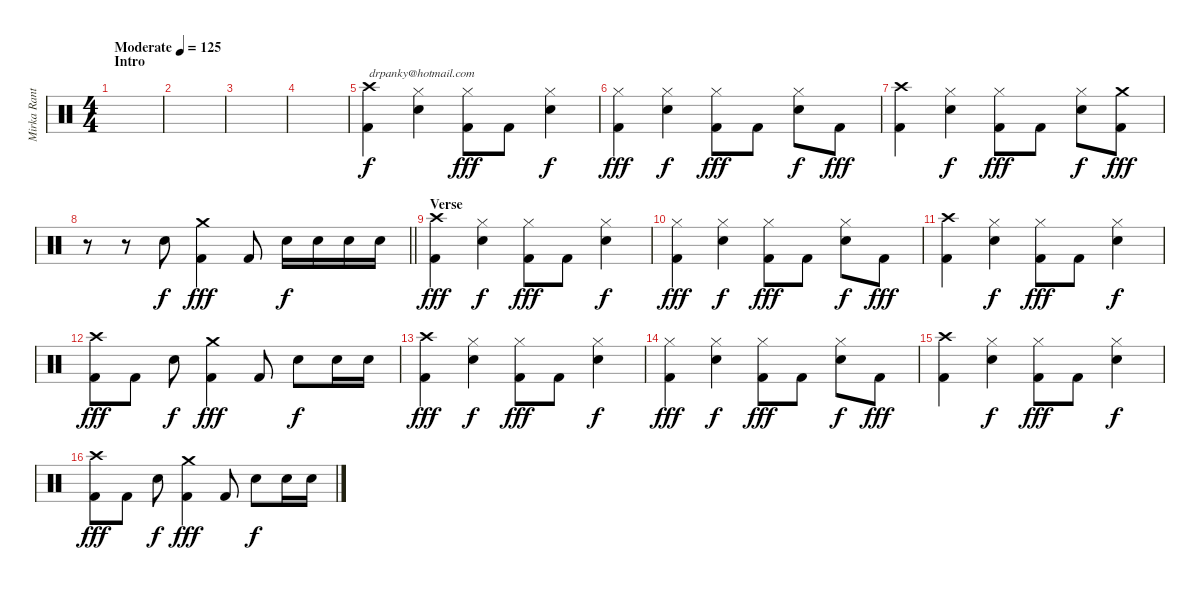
\track ("Mirka Rantanen (Thunderstone)" "Mirka Rant") {instrument percussion}
\staff {score}
\articulation defaults
\ts (4 4)
\section ("" "Intro")
\tempo (125 "Moderate")
\clef neutral
\ks c
|
|
|
|
("Crash high (hit)" "Kick (hit) 2").4{txt "drpanky@hotmail.com"} ("Hi-Hat (closed)" "Electric Snare (hit)").4{dy f} ("Hi-Hat (closed)" "Kick (hit) 2").8{dy fff} "Kick (hit) 2".8 ("Hi-Hat (closed)" "Electric Snare (hit)").4{dy f} |
("Hi-Hat (closed)" "Kick (hit) 2").4{dy fff} ("Hi-Hat (closed)" "Electric Snare (hit)").4{dy f} ("Hi-Hat (closed)" "Kick (hit) 2").8{dy fff} "Kick (hit) 2".8 ("Hi-Hat (closed)" "Electric Snare (hit)").8{dy f} "Kick (hit) 2".8{dy fff} |
("Crash high (hit)" "Kick (hit) 2").4 ("Hi-Hat (closed)" "Electric Snare (hit)").4{dy f} ("Hi-Hat (closed)" "Kick (hit) 2").8{dy fff} "Kick (hit) 2".8 ("Hi-Hat (closed)" "Electric Snare (hit)").8{dy f} ("Crash medium (hit)" "Kick (hit) 2").8{dy fff} |
\barLineRight lightlight
r.8 r.8 "Electric Snare (hit)".8{dy f} ("Crash medium (hit)" "Kick (hit) 2").4{dy fff} "Kick (hit) 2".8 "Electric Snare (hit)".16{dy f} "Electric Snare (hit)".16 "Electric Snare (hit)".16 "Electric Snare (hit)".16 |
\section ("" "Verse")
("Crash high (hit)" "Kick (hit) 2").4{dy fff} ("Hi-Hat (closed)" "Electric Snare (hit)").4{dy f} ("Hi-Hat (closed)" "Kick (hit) 2").8{dy fff} "Kick (hit) 2".8 ("Hi-Hat (closed)" "Electric Snare (hit)").4{dy f} |
("Hi-Hat (closed)" "Kick (hit) 2").4{dy fff} ("Hi-Hat (closed)" "Electric Snare (hit)").4{dy f} ("Hi-Hat (closed)" "Kick (hit) 2").8{dy fff} "Kick (hit) 2".8 ("Hi-Hat (closed)" "Electric Snare (hit)").8{dy f} "Kick (hit) 2".8{dy fff} |
("Crash high (hit)" "Kick (hit) 2").4 ("Hi-Hat (closed)" "Electric Snare (hit)").4{dy f} ("Hi-Hat (closed)" "Kick (hit) 2").8{dy fff} "Kick (hit) 2".8 ("Hi-Hat (closed)" "Electric Snare (hit)").4{dy f} |
("Crash high (hit)" "Kick (hit) 2").8{dy fff} "Kick (hit) 2".8 "Electric Snare (hit)".8{dy f} ("Crash medium (hit)" "Kick (hit) 2").4{dy fff} "Kick (hit) 2".8 "Electric Snare (hit)".8{dy f} "Electric Snare (hit)".16 "Electric Snare (hit)".16 |
("Crash high (hit)" "Kick (hit) 2").4{dy fff} ("Hi-Hat (closed)" "Electric Snare (hit)").4{dy f} ("Hi-Hat (closed)" "Kick (hit) 2").8{dy fff} "Kick (hit) 2".8 ("Hi-Hat (closed)" "Electric Snare (hit)").4{dy f} |
("Hi-Hat (closed)" "Kick (hit) 2").4{dy fff} ("Hi-Hat (closed)" "Electric Snare (hit)").4{dy f} ("Hi-Hat (closed)" "Kick (hit) 2").8{dy fff} "Kick (hit) 2".8 ("Hi-Hat (closed)" "Electric Snare (hit)").8{dy f} "Kick (hit) 2".8{dy fff} |
("Crash high (hit)" "Kick (hit) 2").4 ("Hi-Hat (closed)" "Electric Snare (hit)").4{dy f} ("Hi-Hat (closed)" "Kick (hit) 2").8{dy fff} "Kick (hit) 2".8 ("Hi-Hat (closed)" "Electric Snare (hit)").4{dy f} |
("Crash high (hit)" "Kick (hit) 2").8{dy fff} "Kick (hit) 2".8 "Electric Snare (hit)".8{dy f} ("Crash medium (hit)" "Kick (hit) 2").4{dy fff} "Kick (hit) 2".8 "Electric Snare (hit)".8{dy f} "Electric Snare (hit)".16 "Electric Snare (hit)".16
